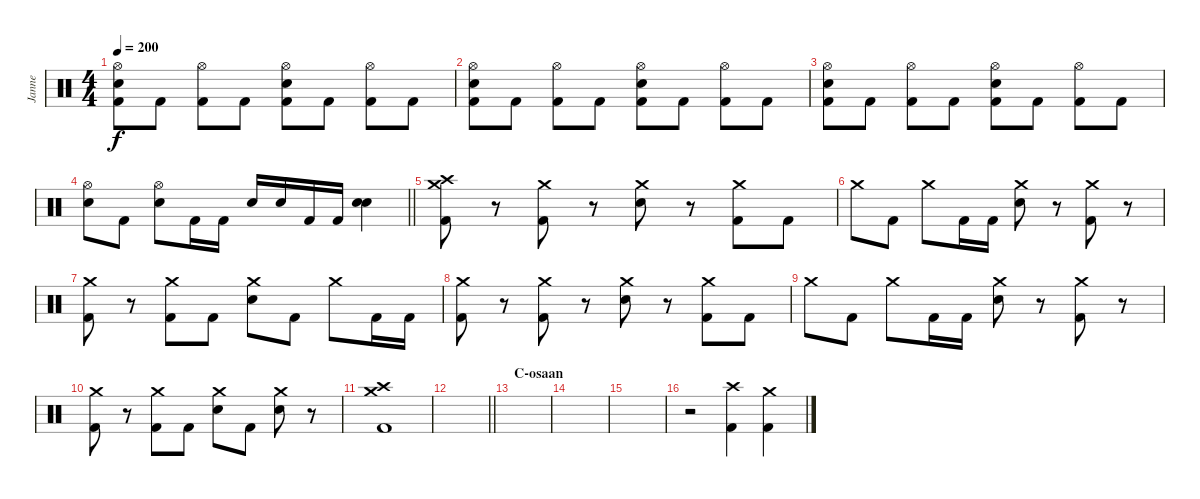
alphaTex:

\track ("Janne" "Janne") {instrument percussion}
\staff {score}
\articulation defaults
\ts (4 4)
\tempo 200
\clef neutral
\ks c
("Hi-Hat (open)" "Electric Snare (hit)" "Kick (hit) 2").8{dy f} "Kick (hit) 2".8 ("Hi-Hat (open)" "Kick (hit) 2").8 "Kick (hit) 2".8 ("Hi-Hat (open)" "Electric Snare (hit)" "Kick (hit) 2").8 "Kick (hit) 2".8 ("Hi-Hat (open)" "Kick (hit) 2").8 "Kick (hit) 2".8 |
("Hi-Hat (open)" "Electric Snare (hit)" "Kick (hit) 2").8 "Kick (hit) 2".8 ("Hi-Hat (open)" "Kick (hit) 2").8 "Kick (hit) 2".8 ("Hi-Hat (open)" "Electric Snare (hit)" "Kick (hit) 2").8 "Kick (hit) 2".8 ("Hi-Hat (open)" "Kick (hit) 2").8 "Kick (hit) 2".8 |
("Hi-Hat (open)" "Electric Snare (hit)" "Kick (hit) 2").8 "Kick (hit) 2".8 ("Hi-Hat (open)" "Kick (hit) 2").8 "Kick (hit) 2".8 ("Hi-Hat (open)" "Electric Snare (hit)" "Kick (hit) 2").8 "Kick (hit) 2".8 ("Hi-Hat (open)" "Kick (hit) 2").8 "Kick (hit) 2".8 |
\barLineRight lightlight
("Hi-Hat (open)" "Electric Snare (hit)").8 "Kick (hit) 2".8 ("Hi-Hat (open)" "Electric Snare (hit)").8 "Kick (hit) 2".16 "Kick (hit) 2".16 "Electric Snare (hit)".16 "Electric Snare (hit)".16 "Kick (hit) 2".16 "Kick (hit) 2".16 ("Electric Snare (hit)" "Electric Snare (hit)").4 |
("Crash high (hit)" "Crash medium (hit)" "Kick (hit) 2").8 r.8 ("Crash medium (hit)" "Kick (hit) 2").8 r.8 ("Crash medium (hit)" "Electric Snare (hit)").8 r.8 ("Crash medium (hit)" "Kick (hit) 2").8 "Kick (hit) 2".8 |
"Crash medium (hit)".8 "Kick (hit) 2".8 "Crash medium (hit)".8 "Kick (hit) 2".16 "Kick (hit) 2".16 ("Crash medium (hit)" "Electric Snare (hit)").8 r.8 ("Crash medium (hit)" "Kick (hit) 2").8 r.8 |
("Crash medium (hit)" "Kick (hit) 2").8 r.8 ("Crash medium (hit)" "Kick (hit) 2").8 "Kick (hit) 2".8 ("Crash medium (hit)" "Electric Snare (hit)").8 "Kick (hit) 2".8 "Crash medium (hit)".8 "Kick (hit) 2".16 "Kick (hit) 2".16 |
("Crash medium (hit)" "Kick (hit) 2").8 r.8 ("Crash medium (hit)" "Kick (hit) 2").8 r.8 ("Crash medium (hit)" "Electric Snare (hit)").8 r.8 ("Crash medium (hit)" "Kick (hit) 2").8 "Kick (hit) 2".8 |
"Crash medium (hit)".8 "Kick (hit) 2".8 "Crash medium (hit)".8 "Kick (hit) 2".16 "Kick (hit) 2".16 ("Crash medium (hit)" "Electric Snare (hit)").8 r.8 ("Crash medium (hit)" "Kick (hit) 2").8 r.8 |
("Crash medium (hit)" "Kick (hit) 2").8 r.8 ("Crash medium (hit)" "Kick (hit) 2").8 "Kick (hit) 2".8 ("Crash medium (hit)" "Electric Snare (hit)").8 "Kick (hit) 2".8 ("Crash medium (hit)" "Electric Snare (hit)").8 r.8 |
("Crash medium (hit)" "Crash high (hit)" "Kick (hit) 2").1 |
\barLineRight lightlight
|
\section ("" "C-osaan")
|
|
|
r.2 ("Crash high (hit)" "Kick (hit) 2").4 ("Crash medium (hit)" "Kick (hit) 2").4
